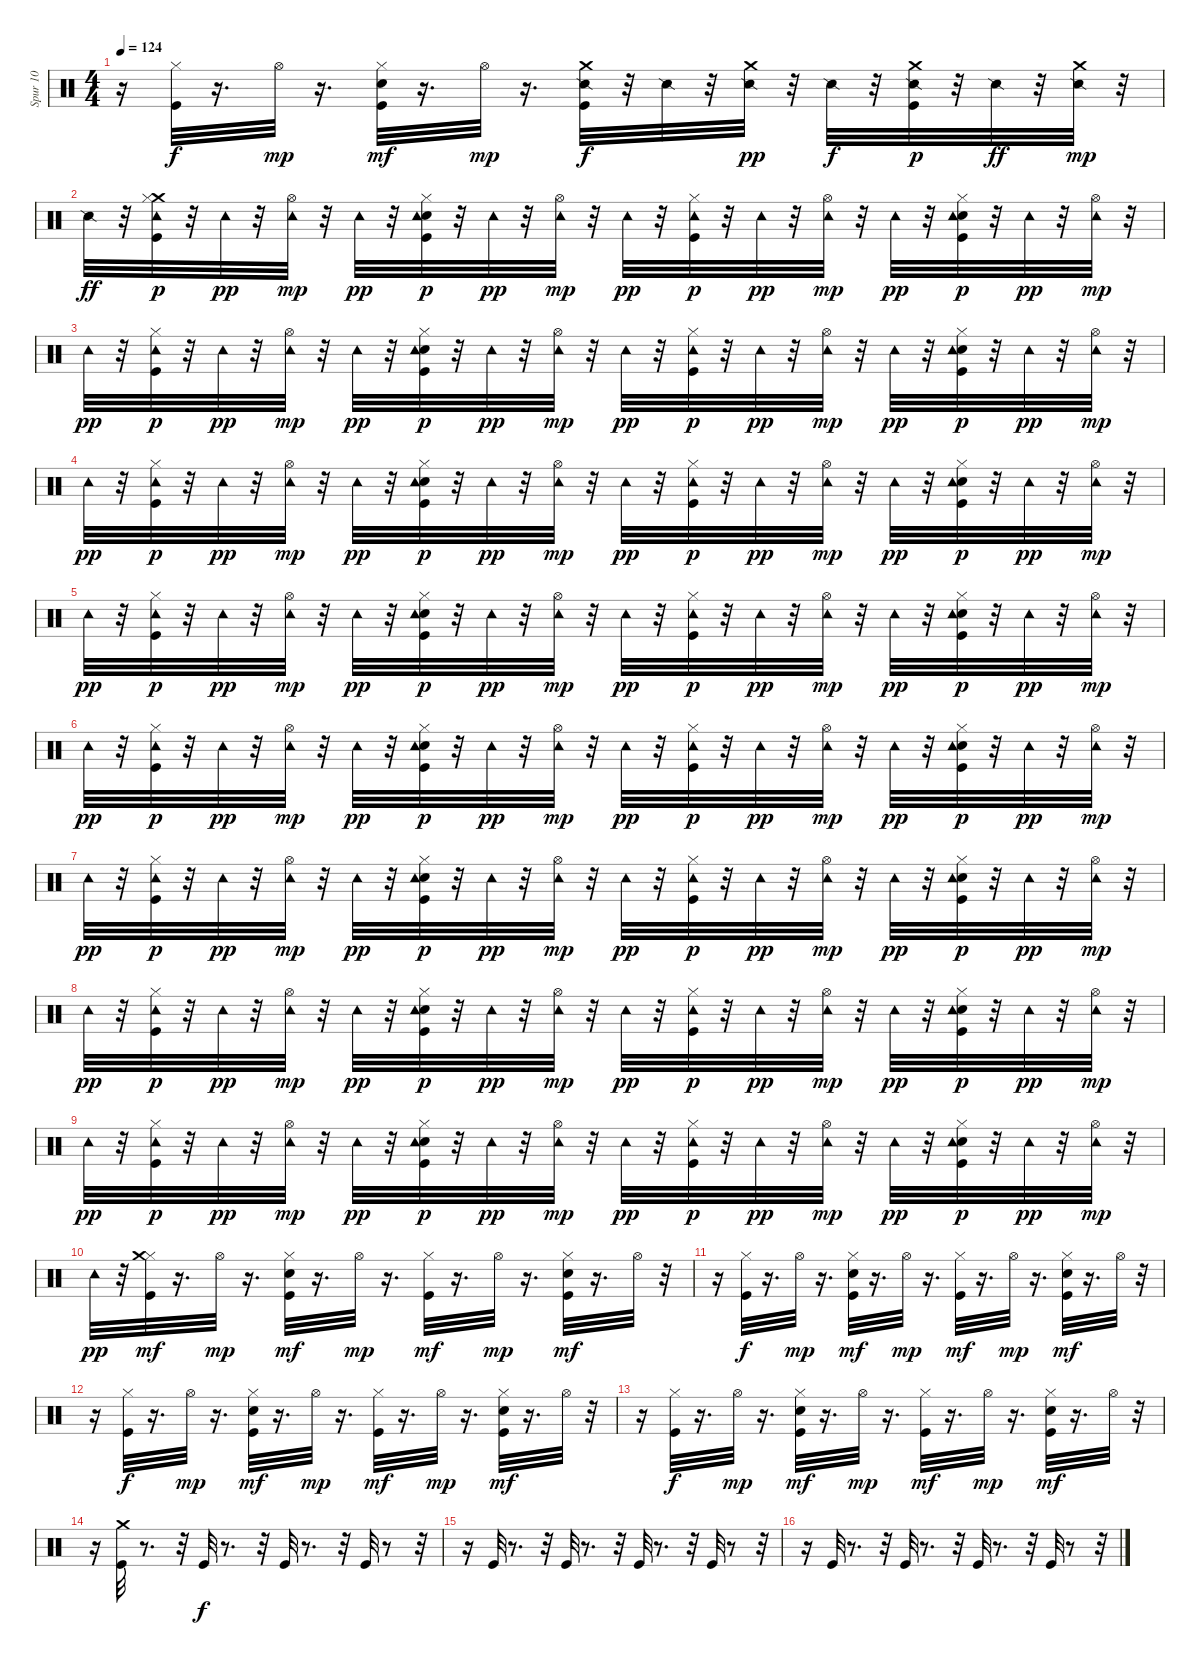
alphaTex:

\track ("Spur 10" "Spur 10") {instrument percussion}
\staff {score}
\articulation defaults
\ts (4 4)
\tempo 124
\clef neutral
\ks c
r.16{dy mf} ("Kick (hit)" "Hi-Hat (closed)").32{dy f} r.16{d} "Hi-Hat (open)".32{dy mp} r.16{d} ("Kick (hit)" "Snare (hit) 2" "Hi-Hat (closed)").32{dy mf} r.16{d} "Hi-Hat (open)".32{dy mp} r.16{d} ("Snare (side stick) 2" "Kick (hit)" "Crash medium (hit)").32{dy f balance 10} r.32 "Snare (side stick) 2".32 r.32 ("Snare (side stick) 2" "Crash medium (hit)").32{dy pp balance 14} r.32 "Snare (side stick) 2".32{dy f} r.32 ("Snare (side stick) 2" "Kick (hit)" "Crash medium (hit)").32{dy p balance 7} r.32 "Snare (side stick) 2".32{dy ff} r.32 ("Snare (side stick) 2" "Crash medium (hit)").32{dy mp balance 0} r.32 |
"Snare (side stick) 2".32{dy ff} r.32 ("Crash medium (hit)" "Kick (hit)" "Hi-Hat (closed)" "Tambourine (hit)").32{dy p balance 8} r.32 "Tambourine (hit)".32{dy pp} r.32 ("Hi-Hat (open)" "Tambourine (hit)").32{dy mp} r.32 "Tambourine (hit)".32{dy pp} r.32 ("Kick (hit)" "Snare (hit) 2" "Hi-Hat (closed)" "Tambourine (hit)").32{dy p} r.32 "Tambourine (hit)".32{dy pp} r.32 ("Hi-Hat (open)" "Tambourine (hit)").32{dy mp} r.32 "Tambourine (hit)".32{dy pp} r.32 ("Kick (hit)" "Hi-Hat (closed)" "Tambourine (hit)").32{dy p} r.32 "Tambourine (hit)".32{dy pp} r.32 ("Hi-Hat (open)" "Tambourine (hit)").32{dy mp} r.32 "Tambourine (hit)".32{dy pp} r.32 ("Kick (hit)" "Snare (hit) 2" "Hi-Hat (closed)" "Tambourine (hit)").32{dy p} r.32 "Tambourine (hit)".32{dy pp} r.32 ("Hi-Hat (open)" "Tambourine (hit)").32{dy mp} r.32 |
"Tambourine (hit)".32{dy pp} r.32 ("Kick (hit)" "Hi-Hat (closed)" "Tambourine (hit)").32{dy p} r.32 "Tambourine (hit)".32{dy pp} r.32 ("Hi-Hat (open)" "Tambourine (hit)").32{dy mp} r.32 "Tambourine (hit)".32{dy pp} r.32 ("Kick (hit)" "Snare (hit) 2" "Hi-Hat (closed)" "Tambourine (hit)").32{dy p} r.32 "Tambourine (hit)".32{dy pp} r.32 ("Hi-Hat (open)" "Tambourine (hit)").32{dy mp} r.32 "Tambourine (hit)".32{dy pp} r.32 ("Kick (hit)" "Hi-Hat (closed)" "Tambourine (hit)").32{dy p} r.32 "Tambourine (hit)".32{dy pp} r.32 ("Hi-Hat (open)" "Tambourine (hit)").32{dy mp} r.32 "Tambourine (hit)".32{dy pp} r.32 ("Kick (hit)" "Snare (hit) 2" "Hi-Hat (closed)" "Tambourine (hit)").32{dy p} r.32 "Tambourine (hit)".32{dy pp} r.32 ("Hi-Hat (open)" "Tambourine (hit)").32{dy mp} r.32 |
"Tambourine (hit)".32{dy pp} r.32 ("Kick (hit)" "Hi-Hat (closed)" "Tambourine (hit)").32{dy p} r.32 "Tambourine (hit)".32{dy pp} r.32 ("Hi-Hat (open)" "Tambourine (hit)").32{dy mp} r.32 "Tambourine (hit)".32{dy pp} r.32 ("Kick (hit)" "Snare (hit) 2" "Hi-Hat (closed)" "Tambourine (hit)").32{dy p} r.32 "Tambourine (hit)".32{dy pp} r.32 ("Hi-Hat (open)" "Tambourine (hit)").32{dy mp} r.32 "Tambourine (hit)".32{dy pp} r.32 ("Kick (hit)" "Hi-Hat (closed)" "Tambourine (hit)").32{dy p} r.32 "Tambourine (hit)".32{dy pp} r.32 ("Hi-Hat (open)" "Tambourine (hit)").32{dy mp} r.32 "Tambourine (hit)".32{dy pp} r.32 ("Kick (hit)" "Snare (hit) 2" "Hi-Hat (closed)" "Tambourine (hit)").32{dy p} r.32 "Tambourine (hit)".32{dy pp} r.32 ("Hi-Hat (open)" "Tambourine (hit)").32{dy mp} r.32 |
"Tambourine (hit)".32{dy pp} r.32 ("Kick (hit)" "Hi-Hat (closed)" "Tambourine (hit)").32{dy p} r.32 "Tambourine (hit)".32{dy pp} r.32 ("Hi-Hat (open)" "Tambourine (hit)").32{dy mp} r.32 "Tambourine (hit)".32{dy pp} r.32 ("Kick (hit)" "Snare (hit) 2" "Hi-Hat (closed)" "Tambourine (hit)").32{dy p} r.32 "Tambourine (hit)".32{dy pp} r.32 ("Hi-Hat (open)" "Tambourine (hit)").32{dy mp} r.32 "Tambourine (hit)".32{dy pp} r.32 ("Kick (hit)" "Hi-Hat (closed)" "Tambourine (hit)").32{dy p} r.32 "Tambourine (hit)".32{dy pp} r.32 ("Hi-Hat (open)" "Tambourine (hit)").32{dy mp} r.32 "Tambourine (hit)".32{dy pp} r.32 ("Kick (hit)" "Snare (hit) 2" "Hi-Hat (closed)" "Tambourine (hit)").32{dy p} r.32 "Tambourine (hit)".32{dy pp} r.32 ("Hi-Hat (open)" "Tambourine (hit)").32{dy mp} r.32 |
"Tambourine (hit)".32{dy pp} r.32 ("Kick (hit)" "Hi-Hat (closed)" "Tambourine (hit)").32{dy p} r.32 "Tambourine (hit)".32{dy pp} r.32 ("Hi-Hat (open)" "Tambourine (hit)").32{dy mp} r.32 "Tambourine (hit)".32{dy pp} r.32 ("Kick (hit)" "Snare (hit) 2" "Hi-Hat (closed)" "Tambourine (hit)").32{dy p} r.32 "Tambourine (hit)".32{dy pp} r.32 ("Hi-Hat (open)" "Tambourine (hit)").32{dy mp} r.32 "Tambourine (hit)".32{dy pp} r.32 ("Kick (hit)" "Hi-Hat (closed)" "Tambourine (hit)").32{dy p} r.32 "Tambourine (hit)".32{dy pp} r.32 ("Hi-Hat (open)" "Tambourine (hit)").32{dy mp} r.32 "Tambourine (hit)".32{dy pp} r.32 ("Kick (hit)" "Snare (hit) 2" "Hi-Hat (closed)" "Tambourine (hit)").32{dy p} r.32 "Tambourine (hit)".32{dy pp} r.32 ("Hi-Hat (open)" "Tambourine (hit)").32{dy mp} r.32 |
"Tambourine (hit)".32{dy pp} r.32 ("Kick (hit)" "Hi-Hat (closed)" "Tambourine (hit)").32{dy p} r.32 "Tambourine (hit)".32{dy pp} r.32 ("Hi-Hat (open)" "Tambourine (hit)").32{dy mp} r.32 "Tambourine (hit)".32{dy pp} r.32 ("Kick (hit)" "Snare (hit) 2" "Hi-Hat (closed)" "Tambourine (hit)").32{dy p} r.32 "Tambourine (hit)".32{dy pp} r.32 ("Hi-Hat (open)" "Tambourine (hit)").32{dy mp} r.32 "Tambourine (hit)".32{dy pp} r.32 ("Kick (hit)" "Hi-Hat (closed)" "Tambourine (hit)").32{dy p} r.32 "Tambourine (hit)".32{dy pp} r.32 ("Hi-Hat (open)" "Tambourine (hit)").32{dy mp} r.32 "Tambourine (hit)".32{dy pp} r.32 ("Kick (hit)" "Snare (hit) 2" "Hi-Hat (closed)" "Tambourine (hit)").32{dy p} r.32 "Tambourine (hit)".32{dy pp} r.32 ("Hi-Hat (open)" "Tambourine (hit)").32{dy mp} r.32 |
"Tambourine (hit)".32{dy pp} r.32 ("Kick (hit)" "Hi-Hat (closed)" "Tambourine (hit)").32{dy p} r.32 "Tambourine (hit)".32{dy pp} r.32 ("Hi-Hat (open)" "Tambourine (hit)").32{dy mp} r.32 "Tambourine (hit)".32{dy pp} r.32 ("Kick (hit)" "Snare (hit) 2" "Hi-Hat (closed)" "Tambourine (hit)").32{dy p} r.32 "Tambourine (hit)".32{dy pp} r.32 ("Hi-Hat (open)" "Tambourine (hit)").32{dy mp} r.32 "Tambourine (hit)".32{dy pp} r.32 ("Kick (hit)" "Hi-Hat (closed)" "Tambourine (hit)").32{dy p} r.32 "Tambourine (hit)".32{dy pp} r.32 ("Hi-Hat (open)" "Tambourine (hit)").32{dy mp} r.32 "Tambourine (hit)".32{dy pp} r.32 ("Kick (hit)" "Snare (hit) 2" "Hi-Hat (closed)" "Tambourine (hit)").32{dy p} r.32 "Tambourine (hit)".32{dy pp} r.32 ("Hi-Hat (open)" "Tambourine (hit)").32{dy mp} r.32 |
"Tambourine (hit)".32{dy pp} r.32 ("Kick (hit)" "Hi-Hat (closed)" "Tambourine (hit)").32{dy p} r.32 "Tambourine (hit)".32{dy pp} r.32 ("Hi-Hat (open)" "Tambourine (hit)").32{dy mp} r.32 "Tambourine (hit)".32{dy pp} r.32 ("Kick (hit)" "Snare (hit) 2" "Hi-Hat (closed)" "Tambourine (hit)").32{dy p} r.32 "Tambourine (hit)".32{dy pp} r.32 ("Hi-Hat (open)" "Tambourine (hit)").32{dy mp} r.32 "Tambourine (hit)".32{dy pp} r.32 ("Kick (hit)" "Hi-Hat (closed)" "Tambourine (hit)").32{dy p} r.32 "Tambourine (hit)".32{dy pp} r.32 ("Hi-Hat (open)" "Tambourine (hit)").32{dy mp} r.32 "Tambourine (hit)".32{dy pp} r.32 ("Kick (hit)" "Snare (hit) 2" "Hi-Hat (closed)" "Tambourine (hit)").32{dy p} r.32 "Tambourine (hit)".32{dy pp} r.32 ("Hi-Hat (open)" "Tambourine (hit)").32{dy mp} r.32 |
"Tambourine (hit)".32{dy pp} r.32 ("Kick (hit)" "Hi-Hat (closed)" "Crash medium (hit)").32{dy mf} r.16{d} "Hi-Hat (open)".32{dy mp} r.16{d} ("Kick (hit)" "Snare (hit) 2" "Hi-Hat (closed)").32{dy mf} r.16{d} "Hi-Hat (open)".32{dy mp} r.16{d} ("Kick (hit)" "Hi-Hat (closed)").32{dy mf} r.16{d} "Hi-Hat (open)".32{dy mp} r.16{d} ("Kick (hit)" "Snare (hit) 2" "Hi-Hat (closed)").32{dy mf} r.16{d} "Hi-Hat (open)".32 r.32 |
r.16 ("Kick (hit)" "Hi-Hat (closed)").32{dy f} r.16{d} "Hi-Hat (open)".32{dy mp} r.16{d} ("Kick (hit)" "Snare (hit) 2" "Hi-Hat (closed)").32{dy mf} r.16{d} "Hi-Hat (open)".32{dy mp} r.16{d} ("Kick (hit)" "Hi-Hat (closed)").32{dy mf} r.16{d} "Hi-Hat (open)".32{dy mp} r.16{d} ("Kick (hit)" "Snare (hit) 2" "Hi-Hat (closed)").32{dy mf} r.16{d} "Hi-Hat (open)".32 r.32 |
r.16 ("Kick (hit)" "Hi-Hat (closed)").32{dy f} r.16{d} "Hi-Hat (open)".32{dy mp} r.16{d} ("Kick (hit)" "Snare (hit) 2" "Hi-Hat (closed)").32{dy mf} r.16{d} "Hi-Hat (open)".32{dy mp} r.16{d} ("Kick (hit)" "Hi-Hat (closed)").32{dy mf} r.16{d} "Hi-Hat (open)".32{dy mp} r.16{d} ("Kick (hit)" "Snare (hit) 2" "Hi-Hat (closed)").32{dy mf} r.16{d} "Hi-Hat (open)".32 r.32 |
r.16 ("Kick (hit)" "Hi-Hat (closed)").32{dy f} r.16{d} "Hi-Hat (open)".32{dy mp} r.16{d} ("Kick (hit)" "Snare (hit) 2" "Hi-Hat (closed)").32{dy mf} r.16{d} "Hi-Hat (open)".32{dy mp} r.16{d} ("Kick (hit)" "Hi-Hat (closed)").32{dy mf} r.16{d} "Hi-Hat (open)".32{dy mp} r.16{d} ("Kick (hit)" "Snare (hit) 2" "Hi-Hat (closed)").32{dy mf} r.16{d} "Hi-Hat (open)".32 r.32 |
r.16 ("Kick (hit)" "Crash medium (hit)").32 r.8{d} r.32 "Kick (hit)".32{dy f} r.8{d} r.32 "Kick (hit)".32 r.8{d} r.32 "Kick (hit)".32 r.8 r.32 |
r.16 "Kick (hit)".32 r.8{d} r.32 "Kick (hit)".32 r.8{d} r.32 "Kick (hit)".32 r.8{d} r.32 "Kick (hit)".32 r.8 r.32 |
r.16 "Kick (hit)".32 r.8{d} r.32 "Kick (hit)".32 r.8{d} r.32 "Kick (hit)".32 r.8{d} r.32 "Kick (hit)".32 r.8 r.32
